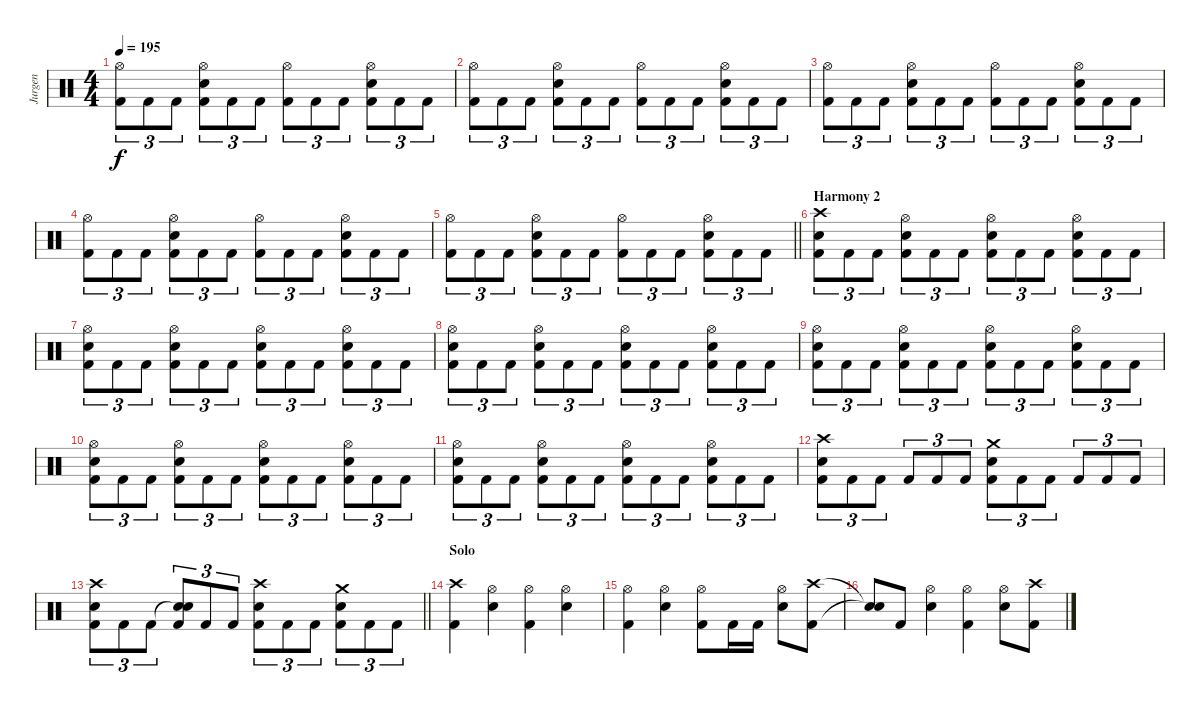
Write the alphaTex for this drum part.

\track ("Jurgen" "Jurgen") {instrument percussion}
\staff {score}
\articulation defaults
\ts (4 4)
\tempo 195
\clef neutral
\ks c
("Hi-Hat (open)" "Kick (hit) 2").8{tu (3 2) dy f} "Kick (hit) 2".8{tu (3 2)} "Kick (hit) 2".8{tu (3 2)} ("Hi-Hat (open)" "Snare (hit) 2" "Kick (hit) 2").8{tu (3 2)} "Kick (hit) 2".8{tu (3 2)} "Kick (hit) 2".8{tu (3 2)} ("Hi-Hat (open)" "Kick (hit) 2").8{tu (3 2)} "Kick (hit) 2".8{tu (3 2)} "Kick (hit) 2".8{tu (3 2)} ("Hi-Hat (open)" "Snare (hit) 2" "Kick (hit) 2").8{tu (3 2)} "Kick (hit) 2".8{tu (3 2)} "Kick (hit) 2".8{tu (3 2)} |
("Hi-Hat (open)" "Kick (hit) 2").8{tu (3 2)} "Kick (hit) 2".8{tu (3 2)} "Kick (hit) 2".8{tu (3 2)} ("Hi-Hat (open)" "Snare (hit) 2" "Kick (hit) 2").8{tu (3 2)} "Kick (hit) 2".8{tu (3 2)} "Kick (hit) 2".8{tu (3 2)} ("Hi-Hat (open)" "Kick (hit) 2").8{tu (3 2)} "Kick (hit) 2".8{tu (3 2)} "Kick (hit) 2".8{tu (3 2)} ("Hi-Hat (open)" "Snare (hit) 2" "Kick (hit) 2").8{tu (3 2)} "Kick (hit) 2".8{tu (3 2)} "Kick (hit) 2".8{tu (3 2)} |
("Hi-Hat (open)" "Kick (hit) 2").8{tu (3 2)} "Kick (hit) 2".8{tu (3 2)} "Kick (hit) 2".8{tu (3 2)} ("Hi-Hat (open)" "Snare (hit) 2" "Kick (hit) 2").8{tu (3 2)} "Kick (hit) 2".8{tu (3 2)} "Kick (hit) 2".8{tu (3 2)} ("Hi-Hat (open)" "Kick (hit) 2").8{tu (3 2)} "Kick (hit) 2".8{tu (3 2)} "Kick (hit) 2".8{tu (3 2)} ("Hi-Hat (open)" "Snare (hit) 2" "Kick (hit) 2").8{tu (3 2)} "Kick (hit) 2".8{tu (3 2)} "Kick (hit) 2".8{tu (3 2)} |
("Hi-Hat (open)" "Kick (hit) 2").8{tu (3 2)} "Kick (hit) 2".8{tu (3 2)} "Kick (hit) 2".8{tu (3 2)} ("Hi-Hat (open)" "Snare (hit) 2" "Kick (hit) 2").8{tu (3 2)} "Kick (hit) 2".8{tu (3 2)} "Kick (hit) 2".8{tu (3 2)} ("Hi-Hat (open)" "Kick (hit) 2").8{tu (3 2)} "Kick (hit) 2".8{tu (3 2)} "Kick (hit) 2".8{tu (3 2)} ("Hi-Hat (open)" "Snare (hit) 2" "Kick (hit) 2").8{tu (3 2)} "Kick (hit) 2".8{tu (3 2)} "Kick (hit) 2".8{tu (3 2)} |
\barLineRight lightlight
("Hi-Hat (open)" "Kick (hit) 2").8{tu (3 2)} "Kick (hit) 2".8{tu (3 2)} "Kick (hit) 2".8{tu (3 2)} ("Hi-Hat (open)" "Snare (hit) 2" "Kick (hit) 2").8{tu (3 2)} "Kick (hit) 2".8{tu (3 2)} "Kick (hit) 2".8{tu (3 2)} ("Hi-Hat (open)" "Kick (hit) 2").8{tu (3 2)} "Kick (hit) 2".8{tu (3 2)} "Kick (hit) 2".8{tu (3 2)} ("Hi-Hat (open)" "Snare (hit) 2" "Kick (hit) 2").8{tu (3 2)} "Kick (hit) 2".8{tu (3 2)} "Kick (hit) 2".8{tu (3 2)} |
\section ("" "Harmony 2")
("Crash high (hit)" "Snare (hit) 2" "Kick (hit) 2").8{tu (3 2)} "Kick (hit) 2".8{tu (3 2)} "Kick (hit) 2".8{tu (3 2)} ("Hi-Hat (open)" "Snare (hit) 2" "Kick (hit) 2").8{tu (3 2)} "Kick (hit) 2".8{tu (3 2)} "Kick (hit) 2".8{tu (3 2)} ("Hi-Hat (open)" "Snare (hit) 2" "Kick (hit) 2").8{tu (3 2)} "Kick (hit) 2".8{tu (3 2)} "Kick (hit) 2".8{tu (3 2)} ("Hi-Hat (open)" "Snare (hit) 2" "Kick (hit) 2").8{tu (3 2)} "Kick (hit) 2".8{tu (3 2)} "Kick (hit) 2".8{tu (3 2)} |
("Hi-Hat (open)" "Snare (hit) 2" "Kick (hit) 2").8{tu (3 2)} "Kick (hit) 2".8{tu (3 2)} "Kick (hit) 2".8{tu (3 2)} ("Hi-Hat (open)" "Snare (hit) 2" "Kick (hit) 2").8{tu (3 2)} "Kick (hit) 2".8{tu (3 2)} "Kick (hit) 2".8{tu (3 2)} ("Hi-Hat (open)" "Snare (hit) 2" "Kick (hit) 2").8{tu (3 2)} "Kick (hit) 2".8{tu (3 2)} "Kick (hit) 2".8{tu (3 2)} ("Hi-Hat (open)" "Snare (hit) 2" "Kick (hit) 2").8{tu (3 2)} "Kick (hit) 2".8{tu (3 2)} "Kick (hit) 2".8{tu (3 2)} |
("Hi-Hat (open)" "Snare (hit) 2" "Kick (hit) 2").8{tu (3 2)} "Kick (hit) 2".8{tu (3 2)} "Kick (hit) 2".8{tu (3 2)} ("Hi-Hat (open)" "Snare (hit) 2" "Kick (hit) 2").8{tu (3 2)} "Kick (hit) 2".8{tu (3 2)} "Kick (hit) 2".8{tu (3 2)} ("Hi-Hat (open)" "Snare (hit) 2" "Kick (hit) 2").8{tu (3 2)} "Kick (hit) 2".8{tu (3 2)} "Kick (hit) 2".8{tu (3 2)} ("Hi-Hat (open)" "Snare (hit) 2" "Kick (hit) 2").8{tu (3 2)} "Kick (hit) 2".8{tu (3 2)} "Kick (hit) 2".8{tu (3 2)} |
("Hi-Hat (open)" "Snare (hit) 2" "Kick (hit) 2").8{tu (3 2)} "Kick (hit) 2".8{tu (3 2)} "Kick (hit) 2".8{tu (3 2)} ("Hi-Hat (open)" "Snare (hit) 2" "Kick (hit) 2").8{tu (3 2)} "Kick (hit) 2".8{tu (3 2)} "Kick (hit) 2".8{tu (3 2)} ("Hi-Hat (open)" "Snare (hit) 2" "Kick (hit) 2").8{tu (3 2)} "Kick (hit) 2".8{tu (3 2)} "Kick (hit) 2".8{tu (3 2)} ("Hi-Hat (open)" "Snare (hit) 2" "Kick (hit) 2").8{tu (3 2)} "Kick (hit) 2".8{tu (3 2)} "Kick (hit) 2".8{tu (3 2)} |
("Hi-Hat (open)" "Snare (hit) 2" "Kick (hit) 2").8{tu (3 2)} "Kick (hit) 2".8{tu (3 2)} "Kick (hit) 2".8{tu (3 2)} ("Hi-Hat (open)" "Snare (hit) 2" "Kick (hit) 2").8{tu (3 2)} "Kick (hit) 2".8{tu (3 2)} "Kick (hit) 2".8{tu (3 2)} ("Hi-Hat (open)" "Snare (hit) 2" "Kick (hit) 2").8{tu (3 2)} "Kick (hit) 2".8{tu (3 2)} "Kick (hit) 2".8{tu (3 2)} ("Hi-Hat (open)" "Snare (hit) 2" "Kick (hit) 2").8{tu (3 2)} "Kick (hit) 2".8{tu (3 2)} "Kick (hit) 2".8{tu (3 2)} |
("Hi-Hat (open)" "Snare (hit) 2" "Kick (hit) 2").8{tu (3 2)} "Kick (hit) 2".8{tu (3 2)} "Kick (hit) 2".8{tu (3 2)} ("Hi-Hat (open)" "Snare (hit) 2" "Kick (hit) 2").8{tu (3 2)} "Kick (hit) 2".8{tu (3 2)} "Kick (hit) 2".8{tu (3 2)} ("Hi-Hat (open)" "Snare (hit) 2" "Kick (hit) 2").8{tu (3 2)} "Kick (hit) 2".8{tu (3 2)} "Kick (hit) 2".8{tu (3 2)} ("Hi-Hat (open)" "Snare (hit) 2" "Kick (hit) 2").8{tu (3 2)} "Kick (hit) 2".8{tu (3 2)} "Kick (hit) 2".8{tu (3 2)} |
("Crash high (hit)" "Snare (hit) 2" "Kick (hit) 2").8{tu (3 2)} "Kick (hit) 2".8{tu (3 2)} "Kick (hit) 2".8{tu (3 2)} "Kick (hit) 2".8{tu (3 2)} "Kick (hit) 2".8{tu (3 2)} "Kick (hit) 2".8{tu (3 2)} ("Crash medium (hit)" "Snare (hit) 2" "Kick (hit) 2").8{tu (3 2)} "Kick (hit) 2".8{tu (3 2)} "Kick (hit) 2".8{tu (3 2)} "Kick (hit) 2".8{tu (3 2)} "Kick (hit) 2".8{tu (3 2)} "Kick (hit) 2".8{tu (3 2)} |
\barLineRight lightlight
("Crash high (hit)" "Snare (hit) 2" "Kick (hit) 2").8{tu (3 2)} "Kick (hit) 2".8{tu (3 2)} "Kick (hit) 2".8{tu (3 2)} ("Snare (hit)"{t} "Snare (hit) 2" "Kick (hit) 2").8{tu (3 2)} "Kick (hit) 2".8{tu (3 2)} "Kick (hit) 2".8{tu (3 2)} ("Crash high (hit)" "Snare (hit) 2" "Kick (hit) 2").8{tu (3 2)} "Kick (hit) 2".8{tu (3 2)} "Kick (hit) 2".8{tu (3 2)} ("Crash medium (hit)" "Snare (hit) 2" "Kick (hit) 2").8{tu (3 2)} "Kick (hit) 2".8{tu (3 2)} "Kick (hit) 2".8{tu (3 2)} |
\section ("" "Solo")
("Crash high (hit)" "Kick (hit) 2").4 ("Hi-Hat (open)" "Snare (hit) 2").4 ("Hi-Hat (open)" "Kick (hit) 2").4 ("Hi-Hat (open)" "Snare (hit) 2").4 |
("Hi-Hat (open)" "Kick (hit) 2").4 ("Hi-Hat (open)" "Snare (hit) 2").4 ("Hi-Hat (open)" "Kick (hit) 2").8 "Kick (hit) 2".16 "Kick (hit) 2".16 ("Hi-Hat (open)" "Snare (hit) 2").8 ("Crash high (hit)" "Kick (hit) 2").8 |
("Snare (hit)"{t} "Snare (hit)"{t}).8 "Kick (hit) 2".8 ("Hi-Hat (open)" "Snare (hit) 2").4 ("Hi-Hat (open)" "Kick (hit) 2").4 ("Hi-Hat (open)" "Snare (hit) 2").8 ("Crash high (hit)" "Kick (hit) 2").8
